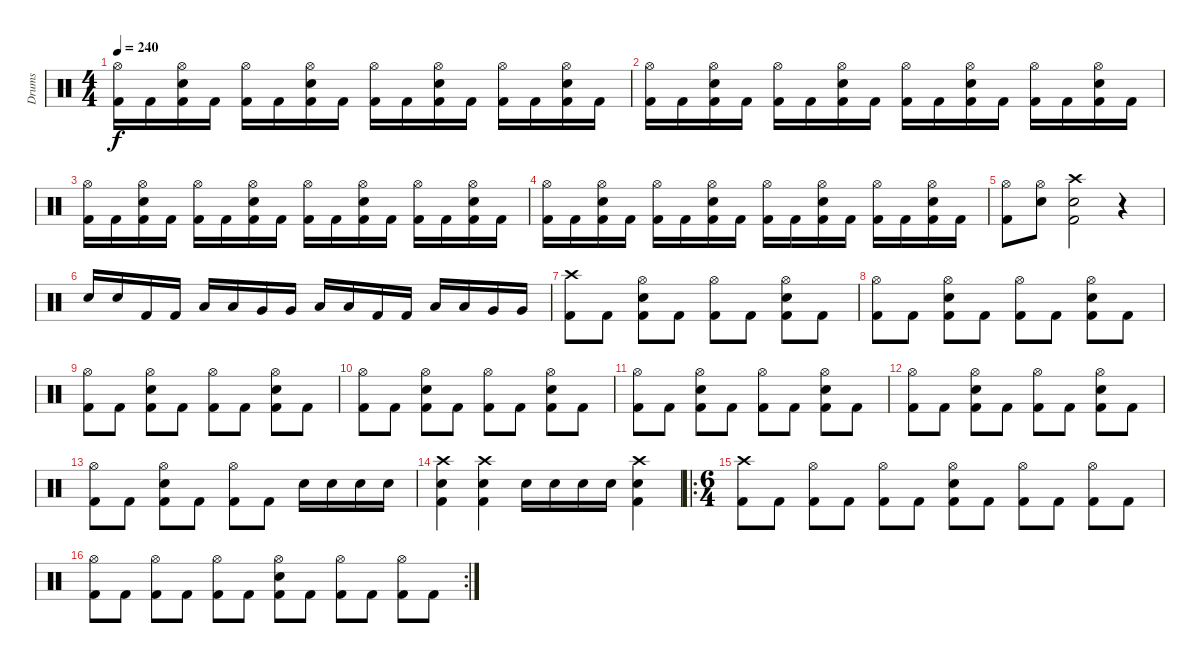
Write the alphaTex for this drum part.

\track ("Drums" "Drums") {instrument percussion}
\staff {score}
\articulation defaults
\ts (4 4)
\tempo 240
\clef neutral
\ks c
("Hi-Hat (open)" "Kick (hit) 2").16{dy f} "Kick (hit) 2".16 ("Hi-Hat (open)" "Snare (hit) 2" "Kick (hit) 2").16 "Kick (hit) 2".16 ("Hi-Hat (open)" "Kick (hit) 2").16 "Kick (hit) 2".16 ("Hi-Hat (open)" "Snare (hit) 2" "Kick (hit) 2").16 "Kick (hit) 2".16 ("Hi-Hat (open)" "Kick (hit) 2").16 "Kick (hit) 2".16 ("Hi-Hat (open)" "Snare (hit) 2" "Kick (hit) 2").16 "Kick (hit) 2".16 ("Hi-Hat (open)" "Kick (hit) 2").16 "Kick (hit) 2".16 ("Hi-Hat (open)" "Snare (hit) 2" "Kick (hit) 2").16 "Kick (hit) 2".16 |
("Hi-Hat (open)" "Kick (hit) 2").16 "Kick (hit) 2".16 ("Hi-Hat (open)" "Snare (hit) 2" "Kick (hit) 2").16 "Kick (hit) 2".16 ("Hi-Hat (open)" "Kick (hit) 2").16 "Kick (hit) 2".16 ("Hi-Hat (open)" "Snare (hit) 2" "Kick (hit) 2").16 "Kick (hit) 2".16 ("Hi-Hat (open)" "Kick (hit) 2").16 "Kick (hit) 2".16 ("Hi-Hat (open)" "Snare (hit) 2" "Kick (hit) 2").16 "Kick (hit) 2".16 ("Hi-Hat (open)" "Kick (hit) 2").16 "Kick (hit) 2".16 ("Hi-Hat (open)" "Snare (hit) 2" "Kick (hit) 2").16 "Kick (hit) 2".16 |
("Hi-Hat (open)" "Kick (hit) 2").16 "Kick (hit) 2".16 ("Hi-Hat (open)" "Snare (hit) 2" "Kick (hit) 2").16 "Kick (hit) 2".16 ("Hi-Hat (open)" "Kick (hit) 2").16 "Kick (hit) 2".16 ("Hi-Hat (open)" "Snare (hit) 2" "Kick (hit) 2").16 "Kick (hit) 2".16 ("Hi-Hat (open)" "Kick (hit) 2").16 "Kick (hit) 2".16 ("Hi-Hat (open)" "Snare (hit) 2" "Kick (hit) 2").16 "Kick (hit) 2".16 ("Hi-Hat (open)" "Kick (hit) 2").16 "Kick (hit) 2".16 ("Hi-Hat (open)" "Snare (hit) 2" "Kick (hit) 2").16 "Kick (hit) 2".16 |
("Hi-Hat (open)" "Kick (hit) 2").16 "Kick (hit) 2".16 ("Hi-Hat (open)" "Snare (hit) 2" "Kick (hit) 2").16 "Kick (hit) 2".16 ("Hi-Hat (open)" "Kick (hit) 2").16 "Kick (hit) 2".16 ("Hi-Hat (open)" "Snare (hit) 2" "Kick (hit) 2").16 "Kick (hit) 2".16 ("Hi-Hat (open)" "Kick (hit) 2").16 "Kick (hit) 2".16 ("Hi-Hat (open)" "Snare (hit) 2" "Kick (hit) 2").16 "Kick (hit) 2".16 ("Hi-Hat (open)" "Kick (hit) 2").16 "Kick (hit) 2".16 ("Hi-Hat (open)" "Snare (hit) 2" "Kick (hit) 2").16 "Kick (hit) 2".16 |
("Hi-Hat (open)" "Kick (hit) 2").8 ("Hi-Hat (open)" "Snare (hit) 2").8 ("Crash high (hit)" "Snare (hit) 2" "Kick (hit) 2").2 r.4 |
"Snare (hit) 2".16 "Snare (hit) 2".16 "Kick (hit) 2".16 "Kick (hit) 2".16 "Low Tom (hit)".16 "Low Tom (hit)".16 "Very Low Tom (hit)".16 "Very Low Tom (hit)".16 "Low Tom (hit)".16 "Low Tom (hit)".16 "Kick (hit) 2".16 "Kick (hit) 2".16 "Low Tom (hit)".16 "Low Tom (hit)".16 "Very Low Tom (hit)".16 "Very Low Tom (hit)".16 |
("Crash high (hit)" "Kick (hit) 2").8 "Kick (hit) 2".8 ("Hi-Hat (open)" "Snare (hit) 2" "Kick (hit) 2").8 "Kick (hit) 2".8 ("Hi-Hat (open)" "Kick (hit) 2").8 "Kick (hit) 2".8 ("Hi-Hat (open)" "Snare (hit) 2" "Kick (hit) 2").8 "Kick (hit) 2".8 |
("Hi-Hat (open)" "Kick (hit) 2").8 "Kick (hit) 2".8 ("Hi-Hat (open)" "Snare (hit) 2" "Kick (hit) 2").8 "Kick (hit) 2".8 ("Hi-Hat (open)" "Kick (hit) 2").8 "Kick (hit) 2".8 ("Hi-Hat (open)" "Snare (hit) 2" "Kick (hit) 2").8 "Kick (hit) 2".8 |
("Hi-Hat (open)" "Kick (hit) 2").8 "Kick (hit) 2".8 ("Hi-Hat (open)" "Snare (hit) 2" "Kick (hit) 2").8 "Kick (hit) 2".8 ("Hi-Hat (open)" "Kick (hit) 2").8 "Kick (hit) 2".8 ("Hi-Hat (open)" "Snare (hit) 2" "Kick (hit) 2").8 "Kick (hit) 2".8 |
("Hi-Hat (open)" "Kick (hit) 2").8 "Kick (hit) 2".8 ("Hi-Hat (open)" "Snare (hit) 2" "Kick (hit) 2").8 "Kick (hit) 2".8 ("Hi-Hat (open)" "Kick (hit) 2").8 "Kick (hit) 2".8 ("Hi-Hat (open)" "Snare (hit) 2" "Kick (hit) 2").8 "Kick (hit) 2".8 |
("Hi-Hat (open)" "Kick (hit) 2").8 "Kick (hit) 2".8 ("Hi-Hat (open)" "Snare (hit) 2" "Kick (hit) 2").8 "Kick (hit) 2".8 ("Hi-Hat (open)" "Kick (hit) 2").8 "Kick (hit) 2".8 ("Hi-Hat (open)" "Snare (hit) 2" "Kick (hit) 2").8 "Kick (hit) 2".8 |
("Hi-Hat (open)" "Kick (hit) 2").8 "Kick (hit) 2".8 ("Hi-Hat (open)" "Snare (hit) 2" "Kick (hit) 2").8 "Kick (hit) 2".8 ("Hi-Hat (open)" "Kick (hit) 2").8 "Kick (hit) 2".8 ("Hi-Hat (open)" "Snare (hit) 2" "Kick (hit) 2").8 "Kick (hit) 2".8 |
("Hi-Hat (open)" "Kick (hit) 2").8 "Kick (hit) 2".8 ("Hi-Hat (open)" "Snare (hit) 2" "Kick (hit) 2").8 "Kick (hit) 2".8 ("Hi-Hat (open)" "Kick (hit) 2").8 "Kick (hit) 2".8 "Snare (hit) 2".16 "Snare (hit) 2".16 "Snare (hit) 2".16 "Snare (hit) 2".16 |
("Crash high (hit)" "Snare (hit) 2" "Kick (hit) 2").4 ("Crash high (hit)" "Snare (hit) 2" "Kick (hit) 2").4 "Snare (hit) 2".16 "Snare (hit) 2".16 "Snare (hit) 2".16 "Snare (hit) 2".16 ("Crash high (hit)" "Snare (hit) 2" "Kick (hit) 2").4 |
\ro
\ts (6 4)
("Crash high (hit)" "Kick (hit) 2").8 "Kick (hit) 2".8 ("Hi-Hat (open)" "Kick (hit) 2").8 "Kick (hit) 2".8 ("Hi-Hat (open)" "Kick (hit) 2").8 "Kick (hit) 2".8 ("Hi-Hat (open)" "Snare (hit) 2" "Kick (hit) 2").8 "Kick (hit) 2".8 ("Hi-Hat (open)" "Kick (hit) 2").8 "Kick (hit) 2".8 ("Hi-Hat (open)" "Kick (hit) 2").8 "Kick (hit) 2".8 |
\rc 2
("Hi-Hat (open)" "Kick (hit) 2").8 "Kick (hit) 2".8 ("Hi-Hat (open)" "Kick (hit) 2").8 "Kick (hit) 2".8 ("Hi-Hat (open)" "Kick (hit) 2").8 "Kick (hit) 2".8 ("Hi-Hat (open)" "Snare (hit) 2" "Kick (hit) 2").8 "Kick (hit) 2".8 ("Hi-Hat (open)" "Kick (hit) 2").8 "Kick (hit) 2".8 ("Hi-Hat (open)" "Kick (hit) 2").8 "Kick (hit) 2".8
